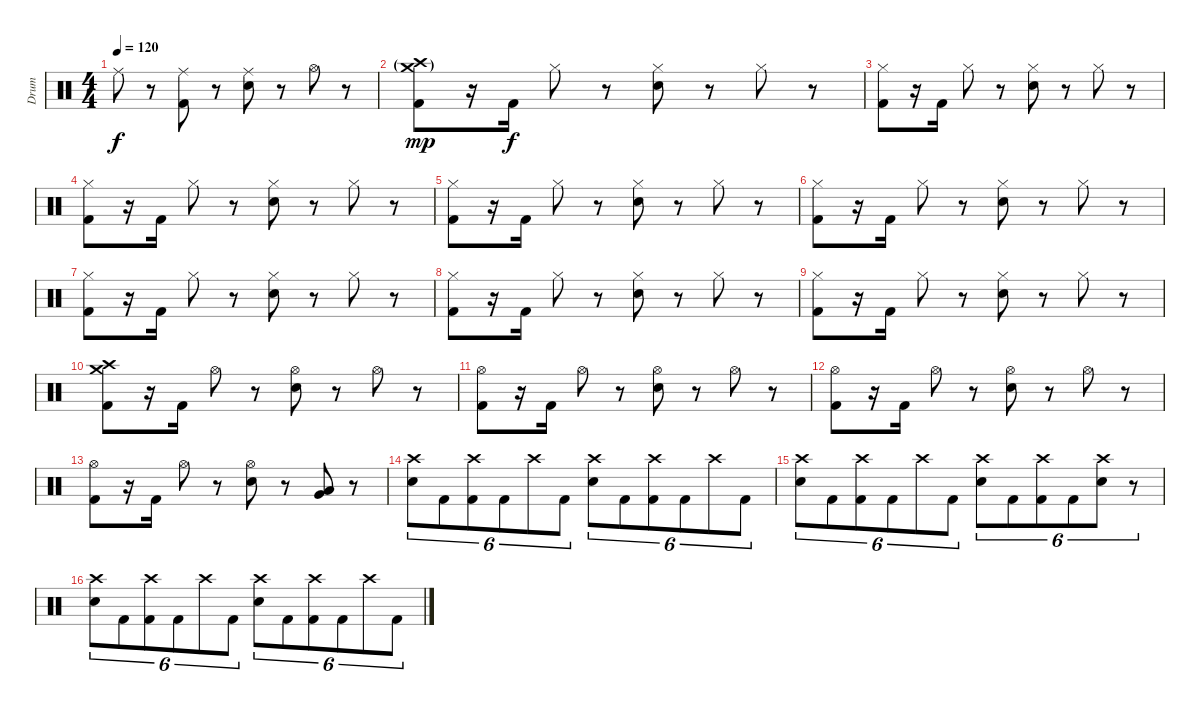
\track ("Drum" "Drum") {instrument percussion}
\staff {score}
\articulation defaults
\ts (4 4)
\tempo 120
\clef neutral
\ks c "Ride (middle)".8{dy f}
r.8 ("Ride (middle)" "Kick (hit) 2").8 r.8 ("Ride (middle)" "Electric Snare (hit)").8 r.8 "Hi-Hat (open)".8 r.8 |
("Crash high (hit)"{g} "Crash medium (hit)"{g} "Kick (hit) 2").8{dy mp} r.16 "Kick (hit) 2".16{dy f} "Hi-Hat (closed)".8 r.8 ("Hi-Hat (closed)" "Electric Snare (hit)").8 r.8 "Hi-Hat (closed)".8 r.8 |
("Hi-Hat (closed)" "Kick (hit) 2").8 r.16 "Kick (hit) 2".16 "Hi-Hat (closed)".8 r.8 ("Hi-Hat (closed)" "Electric Snare (hit)").8 r.8 "Hi-Hat (closed)".8 r.8 |
("Hi-Hat (closed)" "Kick (hit) 2").8 r.16 "Kick (hit) 2".16 "Hi-Hat (closed)".8 r.8 ("Hi-Hat (closed)" "Electric Snare (hit)").8 r.8 "Hi-Hat (closed)".8 r.8 |
("Hi-Hat (closed)" "Kick (hit) 2").8 r.16 "Kick (hit) 2".16 "Hi-Hat (closed)".8 r.8 ("Hi-Hat (closed)" "Electric Snare (hit)").8 r.8 "Hi-Hat (closed)".8 r.8 |
("Hi-Hat (closed)" "Kick (hit) 2").8 r.16 "Kick (hit) 2".16 "Hi-Hat (closed)".8 r.8 ("Hi-Hat (closed)" "Electric Snare (hit)").8 r.8 "Hi-Hat (closed)".8 r.8 |
("Hi-Hat (closed)" "Kick (hit) 2").8 r.16 "Kick (hit) 2".16 "Hi-Hat (closed)".8 r.8 ("Hi-Hat (closed)" "Electric Snare (hit)").8 r.8 "Hi-Hat (closed)".8 r.8 |
("Hi-Hat (closed)" "Kick (hit) 2").8 r.16 "Kick (hit) 2".16 "Hi-Hat (closed)".8 r.8 ("Hi-Hat (closed)" "Electric Snare (hit)").8 r.8 "Hi-Hat (closed)".8 r.8 |
("Hi-Hat (closed)" "Kick (hit) 2").8 r.16 "Kick (hit) 2".16 "Hi-Hat (closed)".8 r.8 ("Hi-Hat (closed)" "Electric Snare (hit)").8 r.8 "Hi-Hat (closed)".8 r.8 |
("Crash high (hit)" "Crash medium (hit)" "Kick (hit) 2").8 r.16 "Kick (hit) 2".16 "Hi-Hat (open)".8 r.8 ("Hi-Hat (open)" "Electric Snare (hit)").8 r.8 "Hi-Hat (open)".8 r.8 |
("Hi-Hat (open)" "Kick (hit) 2").8 r.16 "Kick (hit) 2".16 "Hi-Hat (open)".8 r.8 ("Hi-Hat (open)" "Electric Snare (hit)").8 r.8 "Hi-Hat (open)".8 r.8 |
("Hi-Hat (open)" "Kick (hit) 2").8 r.16 "Kick (hit) 2".16 "Hi-Hat (open)".8 r.8 ("Hi-Hat (open)" "Electric Snare (hit)").8 r.8 "Hi-Hat (open)".8 r.8 |
("Hi-Hat (open)" "Kick (hit) 2").8 r.16 "Kick (hit) 2".16 "Hi-Hat (open)".8 r.8 ("Hi-Hat (open)" "Electric Snare (hit)").8 r.8 ("Low Tom (hit)" "Very Low Tom (hit)").8 r.8 |
("Crash high (hit)" "Electric Snare (hit)").8{tu (6 4)} "Kick (hit) 2".8{tu (6 4)} ("Crash high (hit)" "Kick (hit) 2").8{tu (6 4)} "Kick (hit) 2".8{tu (6 4)} "Crash high (hit)".8{tu (6 4)} "Kick (hit) 2".8{tu (6 4)} ("Crash high (hit)" "Electric Snare (hit)").8{tu (6 4)} "Kick (hit) 2".8{tu (6 4)} ("Crash high (hit)" "Kick (hit) 2").8{tu (6 4)} "Kick (hit) 2".8{tu (6 4)} "Crash high (hit)".8{tu (6 4)} "Kick (hit) 2".8{tu (6 4)} |
("Crash high (hit)" "Electric Snare (hit)").8{tu (6 4)} "Kick (hit) 2".8{tu (6 4)} ("Crash high (hit)" "Kick (hit) 2").8{tu (6 4)} "Kick (hit) 2".8{tu (6 4)} "Crash high (hit)".8{tu (6 4)} "Kick (hit) 2".8{tu (6 4)} ("Crash high (hit)" "Electric Snare (hit)").8{tu (6 4)} "Kick (hit) 2".8{tu (6 4)} ("Crash high (hit)" "Kick (hit) 2").8{tu (6 4)} "Kick (hit) 2".8{tu (6 4)} ("Crash high (hit)" "Electric Snare (hit)").8{tu (6 4)} r.8{tu (6 4)} |
("Crash high (hit)" "Electric Snare (hit)").8{tu (6 4)} "Kick (hit) 2".8{tu (6 4)} ("Crash high (hit)" "Kick (hit) 2").8{tu (6 4)} "Kick (hit) 2".8{tu (6 4)} "Crash high (hit)".8{tu (6 4)} "Kick (hit) 2".8{tu (6 4)} ("Crash high (hit)" "Electric Snare (hit)").8{tu (6 4)} "Kick (hit) 2".8{tu (6 4)} ("Crash high (hit)" "Kick (hit) 2").8{tu (6 4)} "Kick (hit) 2".8{tu (6 4)} "Crash high (hit)".8{tu (6 4)} "Kick (hit) 2".8{tu (6 4)}
